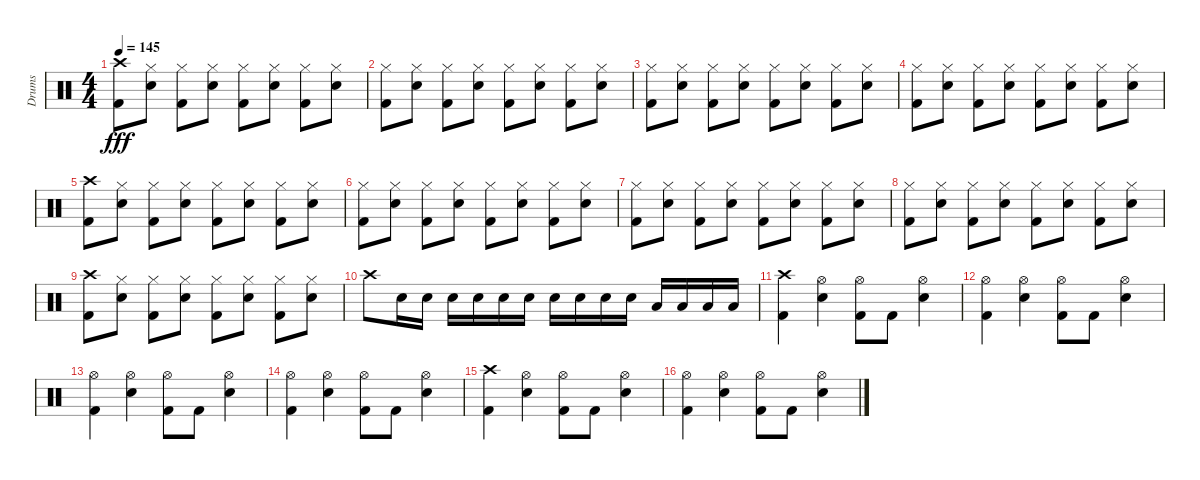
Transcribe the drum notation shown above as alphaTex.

\track ("Drums" "Drums") {instrument percussion}
\staff {score}
\articulation defaults
\ts (4 4)
\tempo 145
\clef neutral
\ks c
("Crash high (hit)" "Kick (hit) 2").8{dy fff} ("Hi-Hat (closed)" "Electric Snare (hit)").8 ("Hi-Hat (closed)" "Kick (hit) 2").8 ("Hi-Hat (closed)" "Electric Snare (hit)").8 ("Hi-Hat (closed)" "Kick (hit) 2").8 ("Hi-Hat (closed)" "Electric Snare (hit)").8 ("Hi-Hat (closed)" "Kick (hit) 2").8 ("Hi-Hat (closed)" "Electric Snare (hit)").8 |
("Hi-Hat (closed)" "Kick (hit) 2").8 ("Hi-Hat (closed)" "Electric Snare (hit)").8 ("Hi-Hat (closed)" "Kick (hit) 2").8 ("Hi-Hat (closed)" "Electric Snare (hit)").8 ("Hi-Hat (closed)" "Kick (hit) 2").8 ("Hi-Hat (closed)" "Electric Snare (hit)").8 ("Hi-Hat (closed)" "Kick (hit) 2").8 ("Hi-Hat (closed)" "Electric Snare (hit)").8 |
("Hi-Hat (closed)" "Kick (hit) 2").8 ("Hi-Hat (closed)" "Electric Snare (hit)").8 ("Hi-Hat (closed)" "Kick (hit) 2").8 ("Hi-Hat (closed)" "Electric Snare (hit)").8 ("Hi-Hat (closed)" "Kick (hit) 2").8 ("Hi-Hat (closed)" "Electric Snare (hit)").8 ("Hi-Hat (closed)" "Kick (hit) 2").8 ("Hi-Hat (closed)" "Electric Snare (hit)").8 |
("Hi-Hat (closed)" "Kick (hit) 2").8 ("Hi-Hat (closed)" "Electric Snare (hit)").8 ("Hi-Hat (closed)" "Kick (hit) 2").8 ("Hi-Hat (closed)" "Electric Snare (hit)").8 ("Hi-Hat (closed)" "Kick (hit) 2").8 ("Hi-Hat (closed)" "Electric Snare (hit)").8 ("Hi-Hat (closed)" "Kick (hit) 2").8 ("Hi-Hat (closed)" "Electric Snare (hit)").8 |
("Crash high (hit)" "Kick (hit) 2").8 ("Hi-Hat (closed)" "Electric Snare (hit)").8 ("Hi-Hat (closed)" "Kick (hit) 2").8 ("Hi-Hat (closed)" "Electric Snare (hit)").8 ("Hi-Hat (closed)" "Kick (hit) 2").8 ("Hi-Hat (closed)" "Electric Snare (hit)").8 ("Hi-Hat (closed)" "Kick (hit) 2").8 ("Hi-Hat (closed)" "Electric Snare (hit)").8 |
("Hi-Hat (closed)" "Kick (hit) 2").8 ("Hi-Hat (closed)" "Electric Snare (hit)").8 ("Hi-Hat (closed)" "Kick (hit) 2").8 ("Hi-Hat (closed)" "Electric Snare (hit)").8 ("Hi-Hat (closed)" "Kick (hit) 2").8 ("Hi-Hat (closed)" "Electric Snare (hit)").8 ("Hi-Hat (closed)" "Kick (hit) 2").8 ("Hi-Hat (closed)" "Electric Snare (hit)").8 |
("Hi-Hat (closed)" "Kick (hit) 2").8 ("Hi-Hat (closed)" "Electric Snare (hit)").8 ("Hi-Hat (closed)" "Kick (hit) 2").8 ("Hi-Hat (closed)" "Electric Snare (hit)").8 ("Hi-Hat (closed)" "Kick (hit) 2").8 ("Hi-Hat (closed)" "Electric Snare (hit)").8 ("Hi-Hat (closed)" "Kick (hit) 2").8 ("Hi-Hat (closed)" "Electric Snare (hit)").8 |
("Hi-Hat (closed)" "Kick (hit) 2").8 ("Hi-Hat (closed)" "Electric Snare (hit)").8 ("Hi-Hat (closed)" "Kick (hit) 2").8 ("Hi-Hat (closed)" "Electric Snare (hit)").8 ("Hi-Hat (closed)" "Kick (hit) 2").8 ("Hi-Hat (closed)" "Electric Snare (hit)").8 ("Hi-Hat (closed)" "Kick (hit) 2").8 ("Hi-Hat (closed)" "Electric Snare (hit)").8 |
("Crash high (hit)" "Kick (hit) 2").8 ("Hi-Hat (closed)" "Electric Snare (hit)").8 ("Hi-Hat (closed)" "Kick (hit) 2").8 ("Hi-Hat (closed)" "Electric Snare (hit)").8 ("Hi-Hat (closed)" "Kick (hit) 2").8 ("Hi-Hat (closed)" "Electric Snare (hit)").8 ("Hi-Hat (closed)" "Kick (hit) 2").8 ("Hi-Hat (closed)" "Electric Snare (hit)").8 |
"Crash high (hit)".8 "Electric Snare (hit)".16 "Electric Snare (hit)".16 "Electric Snare (hit)".16 "Electric Snare (hit)".16 "Electric Snare (hit)".16 "Electric Snare (hit)".16 "Electric Snare (hit)".16 "Electric Snare (hit)".16 "Electric Snare (hit)".16 "Electric Snare (hit)".16 "Low Tom (hit)".16 "Low Tom (hit)".16 "Low Tom (hit)".16 "Low Tom (hit)".16 |
("Crash high (hit)" "Kick (hit) 2").4 ("Hi-Hat (open)" "Electric Snare (hit)").4 ("Hi-Hat (open)" "Kick (hit) 2").8 "Kick (hit) 2".8 ("Hi-Hat (open)" "Electric Snare (hit)").4 |
("Hi-Hat (open)" "Kick (hit) 2").4 ("Hi-Hat (open)" "Electric Snare (hit)").4 ("Hi-Hat (open)" "Kick (hit) 2").8 "Kick (hit) 2".8 ("Hi-Hat (open)" "Electric Snare (hit)").4 |
("Hi-Hat (open)" "Kick (hit) 2").4 ("Hi-Hat (open)" "Electric Snare (hit)").4 ("Hi-Hat (open)" "Kick (hit) 2").8 "Kick (hit) 2".8 ("Hi-Hat (open)" "Electric Snare (hit)").4 |
("Hi-Hat (open)" "Kick (hit) 2").4 ("Hi-Hat (open)" "Electric Snare (hit)").4 ("Hi-Hat (open)" "Kick (hit) 2").8 "Kick (hit) 2".8 ("Hi-Hat (open)" "Electric Snare (hit)").4 |
("Crash high (hit)" "Kick (hit) 2").4 ("Hi-Hat (open)" "Electric Snare (hit)").4 ("Hi-Hat (open)" "Kick (hit) 2").8 "Kick (hit) 2".8 ("Hi-Hat (open)" "Electric Snare (hit)").4 |
("Hi-Hat (open)" "Kick (hit) 2").4 ("Hi-Hat (open)" "Electric Snare (hit)").4 ("Hi-Hat (open)" "Kick (hit) 2").8 "Kick (hit) 2".8 ("Hi-Hat (open)" "Electric Snare (hit)").4
